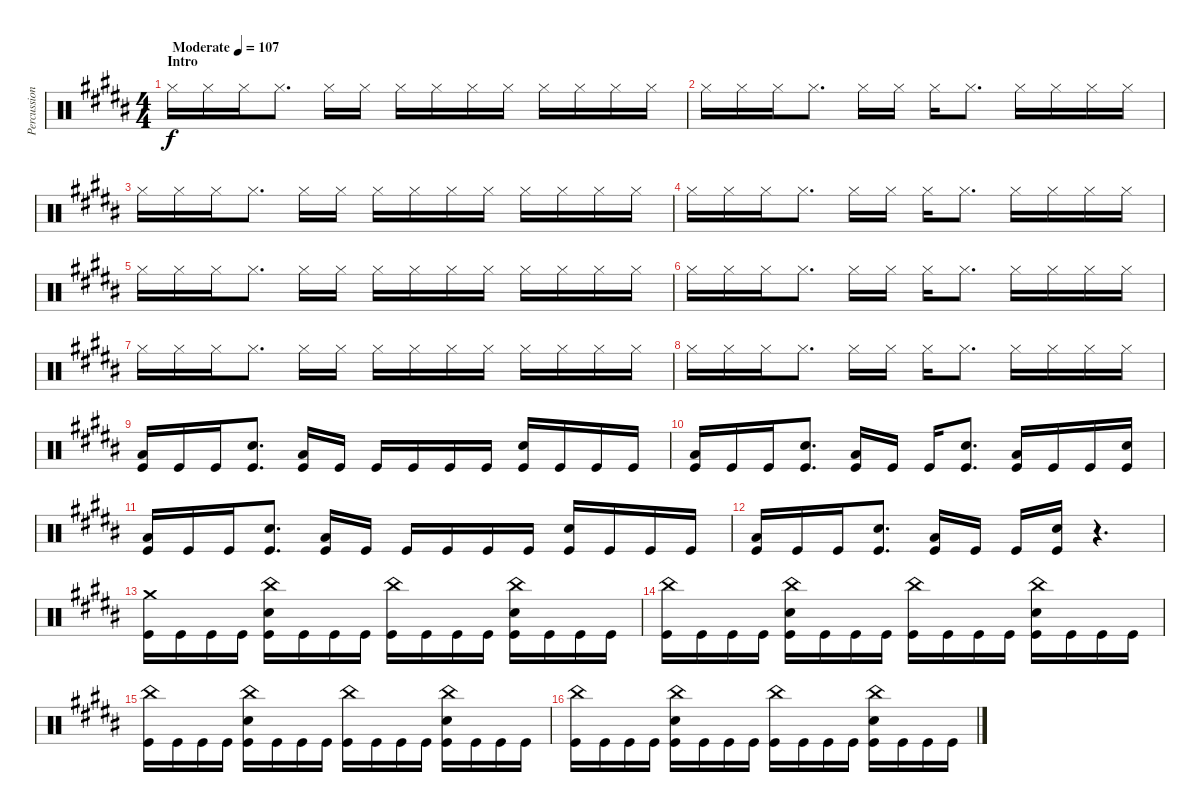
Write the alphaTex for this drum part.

\track ("Percussion" "Percussion") {instrument percussion}
\staff {score}
\articulation defaults
\ts (4 4)
\section ("" "Intro")
\tempo (107 "Moderate")
\clef neutral
\ks b "Hi-Hat (closed)".16{dy f} "Hi-Hat (closed)".16 "Hi-Hat (closed)".16 "Hi-Hat (closed)".8{d} "Hi-Hat (closed)".16 "Hi-Hat (closed)".16 "Hi-Hat (closed)".16 "Hi-Hat (closed)".16 "Hi-Hat (closed)".16 "Hi-Hat (closed)".16 "Hi-Hat (closed)".16 "Hi-Hat (closed)".16 "Hi-Hat (closed)".16 "Hi-Hat (closed)".16
|
"Hi-Hat (closed)".16 "Hi-Hat (closed)".16 "Hi-Hat (closed)".16 "Hi-Hat (closed)".8{d} "Hi-Hat (closed)".16 "Hi-Hat (closed)".16 "Hi-Hat (closed)".16 "Hi-Hat (closed)".8{d} "Hi-Hat (closed)".16 "Hi-Hat (closed)".16 "Hi-Hat (closed)".16 "Hi-Hat (closed)".16 |
"Hi-Hat (closed)".16 "Hi-Hat (closed)".16 "Hi-Hat (closed)".16 "Hi-Hat (closed)".8{d} "Hi-Hat (closed)".16 "Hi-Hat (closed)".16 "Hi-Hat (closed)".16 "Hi-Hat (closed)".16 "Hi-Hat (closed)".16 "Hi-Hat (closed)".16 "Hi-Hat (closed)".16 "Hi-Hat (closed)".16 "Hi-Hat (closed)".16 "Hi-Hat (closed)".16 |
"Hi-Hat (closed)".16 "Hi-Hat (closed)".16 "Hi-Hat (closed)".16 "Hi-Hat (closed)".8{d} "Hi-Hat (closed)".16 "Hi-Hat (closed)".16 "Hi-Hat (closed)".16 "Hi-Hat (closed)".8{d} "Hi-Hat (closed)".16 "Hi-Hat (closed)".16 "Hi-Hat (closed)".16 "Hi-Hat (closed)".16 |
"Hi-Hat (closed)".16 "Hi-Hat (closed)".16 "Hi-Hat (closed)".16 "Hi-Hat (closed)".8{d} "Hi-Hat (closed)".16 "Hi-Hat (closed)".16 "Hi-Hat (closed)".16 "Hi-Hat (closed)".16 "Hi-Hat (closed)".16 "Hi-Hat (closed)".16 "Hi-Hat (closed)".16 "Hi-Hat (closed)".16 "Hi-Hat (closed)".16 "Hi-Hat (closed)".16 |
"Hi-Hat (closed)".16 "Hi-Hat (closed)".16 "Hi-Hat (closed)".16 "Hi-Hat (closed)".8{d} "Hi-Hat (closed)".16 "Hi-Hat (closed)".16 "Hi-Hat (closed)".16 "Hi-Hat (closed)".8{d} "Hi-Hat (closed)".16 "Hi-Hat (closed)".16 "Hi-Hat (closed)".16 "Hi-Hat (closed)".16 |
"Hi-Hat (closed)".16 "Hi-Hat (closed)".16 "Hi-Hat (closed)".16 "Hi-Hat (closed)".8{d} "Hi-Hat (closed)".16 "Hi-Hat (closed)".16 "Hi-Hat (closed)".16 "Hi-Hat (closed)".16 "Hi-Hat (closed)".16 "Hi-Hat (closed)".16 "Hi-Hat (closed)".16 "Hi-Hat (closed)".16 "Hi-Hat (closed)".16 "Hi-Hat (closed)".16 |
"Hi-Hat (closed)".16 "Hi-Hat (closed)".16 "Hi-Hat (closed)".16 "Hi-Hat (closed)".8{d} "Hi-Hat (closed)".16 "Hi-Hat (closed)".16 "Hi-Hat (closed)".16 "Hi-Hat (closed)".8{d} "Hi-Hat (closed)".16 "Hi-Hat (closed)".16 "Hi-Hat (closed)".16 "Hi-Hat (closed)".16 |
("Low Floor Tom (hit)" "Kick (hit)").16 "Kick (hit)".16 "Kick (hit)".16 ("Electric Snare (hit)" "Kick (hit)").8{d} ("Low Floor Tom (hit)" "Kick (hit)").16 "Kick (hit)".16 "Kick (hit)".16 "Kick (hit)".16 "Kick (hit)".16 "Kick (hit)".16 ("Electric Snare (hit)" "Kick (hit)").16 "Kick (hit)".16 "Kick (hit)".16 "Kick (hit)".16 |
("Low Floor Tom (hit)" "Kick (hit)").16 "Kick (hit)".16 "Kick (hit)".16 ("Electric Snare (hit)" "Kick (hit)").8{d} ("Low Floor Tom (hit)" "Kick (hit)").16 "Kick (hit)".16 "Kick (hit)".16 ("Electric Snare (hit)" "Kick (hit)").8{d} ("Low Floor Tom (hit)" "Kick (hit)").16 "Kick (hit)".16 "Kick (hit)".16 ("Electric Snare (hit)" "Kick (hit)").16 |
("Low Floor Tom (hit)" "Kick (hit)").16 "Kick (hit)".16 "Kick (hit)".16 ("Electric Snare (hit)" "Kick (hit)").8{d} ("Low Floor Tom (hit)" "Kick (hit)").16 "Kick (hit)".16 "Kick (hit)".16 "Kick (hit)".16 "Kick (hit)".16 "Kick (hit)".16 ("Electric Snare (hit)" "Kick (hit)").16 "Kick (hit)".16 "Kick (hit)".16 "Kick (hit)".16 |
("Low Floor Tom (hit)" "Kick (hit)").16 "Kick (hit)".16 "Kick (hit)".16 ("Electric Snare (hit)" "Kick (hit)").8{d} ("Low Floor Tom (hit)" "Kick (hit)").16 "Kick (hit)".16 "Kick (hit)".16 ("Electric Snare (hit)" "Kick (hit)").16 r.4{d} |
("Crash medium (hit)" "Kick (hit)").16 "Kick (hit)".16 "Kick (hit)".16 "Kick (hit)".16 ("China (hit)" "Electric Snare (hit)" "Kick (hit)").16 "Kick (hit)".16 "Kick (hit)".16 "Kick (hit)".16 ("China (hit)" "Kick (hit)").16 "Kick (hit)".16 "Kick (hit)".16 "Kick (hit)".16 ("China (hit)" "Electric Snare (hit)" "Kick (hit)").16 "Kick (hit)".16 "Kick (hit)".16 "Kick (hit)".16 |
("China (hit)" "Kick (hit)").16 "Kick (hit)".16 "Kick (hit)".16 "Kick (hit)".16 ("China (hit)" "Electric Snare (hit)" "Kick (hit)").16 "Kick (hit)".16 "Kick (hit)".16 "Kick (hit)".16 ("China (hit)" "Kick (hit)").16 "Kick (hit)".16 "Kick (hit)".16 "Kick (hit)".16 ("China (hit)" "Electric Snare (hit)" "Kick (hit)").16 "Kick (hit)".16 "Kick (hit)".16 "Kick (hit)".16 |
("China (hit)" "Kick (hit)").16 "Kick (hit)".16 "Kick (hit)".16 "Kick (hit)".16 ("China (hit)" "Electric Snare (hit)" "Kick (hit)").16 "Kick (hit)".16 "Kick (hit)".16 "Kick (hit)".16 ("China (hit)" "Kick (hit)").16 "Kick (hit)".16 "Kick (hit)".16 "Kick (hit)".16 ("China (hit)" "Electric Snare (hit)" "Kick (hit)").16 "Kick (hit)".16 "Kick (hit)".16 "Kick (hit)".16 |
("China (hit)" "Kick (hit)").16 "Kick (hit)".16 "Kick (hit)".16 "Kick (hit)".16 ("China (hit)" "Electric Snare (hit)" "Kick (hit)").16 "Kick (hit)".16 "Kick (hit)".16 "Kick (hit)".16 ("China (hit)" "Kick (hit)").16 "Kick (hit)".16 "Kick (hit)".16 "Kick (hit)".16 ("China (hit)" "Electric Snare (hit)" "Kick (hit)").16 "Kick (hit)".16 "Kick (hit)".16 "Kick (hit)".16
